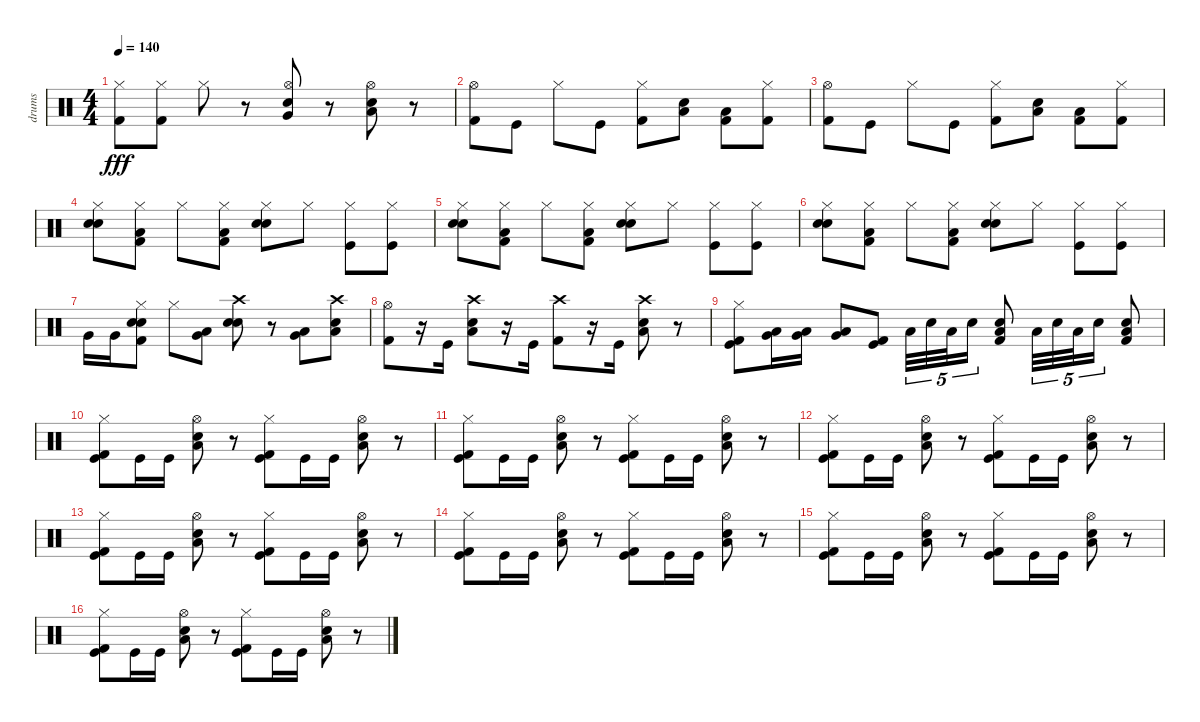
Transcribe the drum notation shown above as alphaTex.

\track ("drums" "drums") {instrument percussion}
\staff {score}
\articulation defaults
\ts (4 4)
\tempo 140
\clef neutral
\ks c
("Hi-Hat (closed)" "Kick (hit) 2").8{dy fff} ("Hi-Hat (closed)" "Kick (hit) 2").8 "Hi-Hat (closed)".8 r.8 ("Very Low Tom (hit)" "Hi-Hat (open)" "Snare (hit) 2").8 r.8 ("Low Tom (hit)" "Snare (hit) 2" "Hi-Hat (open)").8 r.8 |
("Hi-Hat (open)" "Kick (hit) 2").8 "Kick (hit)".8 "Hi-Hat (closed)".8 "Kick (hit)".8 ("Kick (hit) 2" "Hi-Hat (closed)").8 ("Snare (hit) 2" "Low Tom (hit)").8 ("Low Floor Tom (hit)" "Kick (hit) 2").8 ("Kick (hit) 2" "Hi-Hat (closed)").8 |
("Hi-Hat (open)" "Kick (hit) 2").8 "Kick (hit)".8 "Hi-Hat (closed)".8 "Kick (hit)".8 ("Kick (hit) 2" "Hi-Hat (closed)").8 ("Snare (hit) 2" "Low Tom (hit)").8 ("Low Floor Tom (hit)" "Kick (hit) 2").8 ("Kick (hit) 2" "Hi-Hat (closed)").8 |
("Electric Snare (hit)" "Snare (hit) 2" "Hi-Hat (closed)").8 ("Hi-Hat (closed)" "Low Floor Tom (hit)" "Kick (hit) 2").8 "Hi-Hat (closed)".8 ("Hi-Hat (closed)" "Low Floor Tom (hit)" "Kick (hit) 2").8 ("Hi-Hat (closed)" "Electric Snare (hit)" "Snare (hit) 2").8 "Hi-Hat (closed)".8 ("Hi-Hat (closed)" "Kick (hit)").8 ("Hi-Hat (closed)" "Kick (hit)").8 |
("Electric Snare (hit)" "Snare (hit) 2" "Hi-Hat (closed)").8 ("Hi-Hat (closed)" "Low Floor Tom (hit)" "Kick (hit) 2").8 "Hi-Hat (closed)".8 ("Hi-Hat (closed)" "Low Floor Tom (hit)" "Kick (hit) 2").8 ("Hi-Hat (closed)" "Electric Snare (hit)" "Snare (hit) 2").8 "Hi-Hat (closed)".8 ("Hi-Hat (closed)" "Kick (hit)").8 ("Hi-Hat (closed)" "Kick (hit)").8 |
("Electric Snare (hit)" "Snare (hit) 2" "Hi-Hat (closed)").8 ("Hi-Hat (closed)" "Low Floor Tom (hit)" "Kick (hit) 2").8 "Hi-Hat (closed)".8 ("Hi-Hat (closed)" "Low Floor Tom (hit)" "Kick (hit) 2").8 ("Hi-Hat (closed)" "Electric Snare (hit)" "Snare (hit) 2").8 "Hi-Hat (closed)".8 ("Hi-Hat (closed)" "Kick (hit)").8 ("Hi-Hat (closed)" "Kick (hit)").8 |
"Very Low Tom (hit)".16 "Very Low Tom (hit)".16 ("Hi-Hat (closed)" "Kick (hit) 2" "Electric Snare (hit)" "Snare (hit) 2").8 "Hi-Hat (closed)".8 ("Low Tom (hit)" "Very Low Tom (hit)").8 ("Crash high (hit)" "Snare (hit) 2" "Electric Snare (hit)").8 r.8 ("Very Low Tom (hit)" "Low Tom (hit)").8 ("Crash high (hit)" "Low Tom (hit)" "Snare (hit) 2").8 |
("Kick (hit) 2" "Hi-Hat (open)").8 r.16 "Kick (hit)".16 ("Low Tom (hit)" "Snare (hit) 2" "Crash high (hit)").8 r.16 "Kick (hit)".16 ("Kick (hit) 2" "Crash high (hit)").8 r.16 "Kick (hit)".16 ("Low Tom (hit)" "Snare (hit) 2" "Crash high (hit)").8 r.8 |
("Hi-Hat (closed)" "Kick (hit)" "Kick (hit) 2").8 ("Low Tom (hit)" "Very Low Tom (hit)").16 ("Very Low Tom (hit)" "Low Floor Tom (hit)").16 ("Very Low Tom (hit)" "Low Floor Tom (hit)").8 ("Kick (hit)" "Kick (hit) 2").8 "Low Tom (hit)".32{tu (5 4)} "Snare (hit) 2".32{tu (5 4)} "Low Tom (hit)".32{tu (5 4)} "Snare (hit) 2".16{tu (5 4)} ("Kick (hit) 2" "Low Tom (hit)" "Snare (hit) 2").8 "Low Tom (hit)".32{tu (5 4)} "Snare (hit) 2".32{tu (5 4)} "Low Tom (hit)".32{tu (5 4)} "Snare (hit) 2".16{tu (5 4)} ("Low Tom (hit)" "Kick (hit) 2" "Snare (hit) 2").8 |
("Hi-Hat (closed)" "Kick (hit)" "Kick (hit) 2").8 "Kick (hit)".16 "Kick (hit)".16 ("Hi-Hat (open)" "Low Tom (hit)" "Snare (hit) 2").8 r.8 ("Hi-Hat (closed)" "Kick (hit)" "Kick (hit) 2").8 "Kick (hit)".16 "Kick (hit)".16 ("Hi-Hat (open)" "Low Tom (hit)" "Snare (hit) 2").8 r.8 |
("Hi-Hat (closed)" "Kick (hit)" "Kick (hit) 2").8 "Kick (hit)".16 "Kick (hit)".16 ("Hi-Hat (open)" "Low Tom (hit)" "Snare (hit) 2").8 r.8 ("Hi-Hat (closed)" "Kick (hit)" "Kick (hit) 2").8 "Kick (hit)".16 "Kick (hit)".16 ("Hi-Hat (open)" "Low Tom (hit)" "Snare (hit) 2").8 r.8 |
("Hi-Hat (closed)" "Kick (hit)" "Kick (hit) 2").8 "Kick (hit)".16 "Kick (hit)".16 ("Hi-Hat (open)" "Low Tom (hit)" "Snare (hit) 2").8 r.8 ("Hi-Hat (closed)" "Kick (hit)" "Kick (hit) 2").8 "Kick (hit)".16 "Kick (hit)".16 ("Hi-Hat (open)" "Low Tom (hit)" "Snare (hit) 2").8 r.8 |
("Hi-Hat (closed)" "Kick (hit)" "Kick (hit) 2").8 "Kick (hit)".16 "Kick (hit)".16 ("Hi-Hat (open)" "Low Tom (hit)" "Snare (hit) 2").8 r.8 ("Hi-Hat (closed)" "Kick (hit)" "Kick (hit) 2").8 "Kick (hit)".16 "Kick (hit)".16 ("Hi-Hat (open)" "Low Tom (hit)" "Snare (hit) 2").8 r.8 |
("Hi-Hat (closed)" "Kick (hit)" "Kick (hit) 2").8 "Kick (hit)".16 "Kick (hit)".16 ("Hi-Hat (open)" "Low Tom (hit)" "Snare (hit) 2").8 r.8 ("Hi-Hat (closed)" "Kick (hit)" "Kick (hit) 2").8 "Kick (hit)".16 "Kick (hit)".16 ("Hi-Hat (open)" "Low Tom (hit)" "Snare (hit) 2").8 r.8 |
("Hi-Hat (closed)" "Kick (hit)" "Kick (hit) 2").8 "Kick (hit)".16 "Kick (hit)".16 ("Hi-Hat (open)" "Low Tom (hit)" "Snare (hit) 2").8 r.8 ("Hi-Hat (closed)" "Kick (hit)" "Kick (hit) 2").8 "Kick (hit)".16 "Kick (hit)".16 ("Hi-Hat (open)" "Low Tom (hit)" "Snare (hit) 2").8 r.8 |
("Hi-Hat (closed)" "Kick (hit)" "Kick (hit) 2").8 "Kick (hit)".16 "Kick (hit)".16 ("Hi-Hat (open)" "Low Tom (hit)" "Snare (hit) 2").8 r.8 ("Hi-Hat (closed)" "Kick (hit)" "Kick (hit) 2").8 "Kick (hit)".16 "Kick (hit)".16 ("Hi-Hat (open)" "Low Tom (hit)" "Snare (hit) 2").8 r.8
